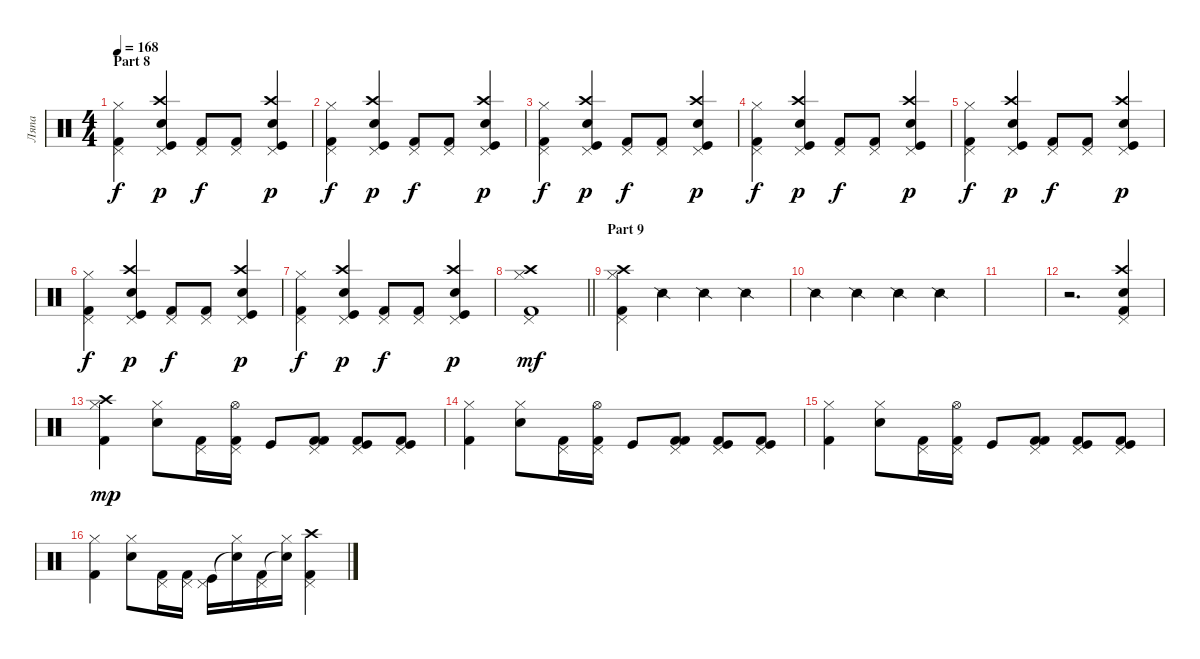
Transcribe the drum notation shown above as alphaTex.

\track ("Ляпа" "Ляпа") {instrument percussion}
\staff {score}
\articulation defaults
\ts (4 4)
\section ("" "Part 8")
\tempo 168
\clef neutral
\ks c
("Hi-Hat (closed)" "Kick (hit) 2" "Pedal Hi-Hat (hit)").4{dy f} ("Crash high (hit)" "Snare (hit) 2" "Kick (hit)" "Pedal Hi-Hat (hit)").4{dy p} ("Kick (hit) 2" "Pedal Hi-Hat (hit)").8{dy f} ("Kick (hit) 2" "Pedal Hi-Hat (hit)").8 ("Crash high (hit)" "Snare (hit) 2" "Kick (hit)" "Pedal Hi-Hat (hit)").4{dy p} |
("Hi-Hat (closed)" "Kick (hit) 2" "Pedal Hi-Hat (hit)").4{dy f} ("Crash high (hit)" "Snare (hit) 2" "Kick (hit)" "Pedal Hi-Hat (hit)").4{dy p} ("Kick (hit) 2" "Pedal Hi-Hat (hit)").8{dy f} ("Kick (hit) 2" "Pedal Hi-Hat (hit)").8 ("Crash high (hit)" "Snare (hit) 2" "Kick (hit)" "Pedal Hi-Hat (hit)").4{dy p} |
("Hi-Hat (closed)" "Kick (hit) 2" "Pedal Hi-Hat (hit)").4{dy f} ("Crash high (hit)" "Snare (hit) 2" "Kick (hit)" "Pedal Hi-Hat (hit)").4{dy p} ("Kick (hit) 2" "Pedal Hi-Hat (hit)").8{dy f} ("Kick (hit) 2" "Pedal Hi-Hat (hit)").8 ("Crash high (hit)" "Snare (hit) 2" "Kick (hit)" "Pedal Hi-Hat (hit)").4{dy p} |
("Hi-Hat (closed)" "Kick (hit) 2" "Pedal Hi-Hat (hit)").4{dy f} ("Crash high (hit)" "Snare (hit) 2" "Kick (hit)" "Pedal Hi-Hat (hit)").4{dy p} ("Kick (hit) 2" "Pedal Hi-Hat (hit)").8{dy f} ("Kick (hit) 2" "Pedal Hi-Hat (hit)").8 ("Crash high (hit)" "Snare (hit) 2" "Kick (hit)" "Pedal Hi-Hat (hit)").4{dy p} |
("Hi-Hat (closed)" "Kick (hit) 2" "Pedal Hi-Hat (hit)").4{dy f} ("Crash high (hit)" "Snare (hit) 2" "Kick (hit)" "Pedal Hi-Hat (hit)").4{dy p} ("Kick (hit) 2" "Pedal Hi-Hat (hit)").8{dy f} ("Kick (hit) 2" "Pedal Hi-Hat (hit)").8 ("Crash high (hit)" "Snare (hit) 2" "Kick (hit)" "Pedal Hi-Hat (hit)").4{dy p} |
("Hi-Hat (closed)" "Kick (hit) 2" "Pedal Hi-Hat (hit)").4{dy f} ("Crash high (hit)" "Snare (hit) 2" "Kick (hit)" "Pedal Hi-Hat (hit)").4{dy p} ("Kick (hit) 2" "Pedal Hi-Hat (hit)").8{dy f} ("Kick (hit) 2" "Pedal Hi-Hat (hit)").8 ("Crash high (hit)" "Snare (hit) 2" "Kick (hit)" "Pedal Hi-Hat (hit)").4{dy p} |
("Hi-Hat (closed)" "Kick (hit) 2" "Pedal Hi-Hat (hit)").4{dy f} ("Crash high (hit)" "Snare (hit) 2" "Kick (hit)" "Pedal Hi-Hat (hit)").4{dy p} ("Kick (hit) 2" "Pedal Hi-Hat (hit)").8{dy f} ("Kick (hit) 2" "Pedal Hi-Hat (hit)").8 ("Crash high (hit)" "Snare (hit) 2" "Kick (hit)" "Pedal Hi-Hat (hit)").4{dy p} |
\barLineRight lightlight
("Pedal Hi-Hat (hit)" "Crash high (hit)" "Hi-Hat (closed)" "Kick (hit) 2").1{dy mf} |
\section ("" "Part 9")
("Pedal Hi-Hat (hit)" "Crash high (hit)" "Hi-Hat (closed)" "Kick (hit) 2").4 "Snare (side stick) 2".4 "Snare (side stick) 2".4 "Snare (side stick) 2".4 |
"Snare (side stick) 2".4 "Snare (side stick) 2".4 "Snare (side stick) 2".4 "Snare (side stick) 2".4 |
|
r.2{d} ("Kick (hit) 2" "Pedal Hi-Hat (hit)" "Crash high (hit)" "Snare (hit) 2").4{bu 120} |
("Crash high (hit)" "Kick (hit) 2" "Hi-Hat (closed)").4{dy mp} ("Electric Snare (hit)" "Hi-Hat (closed)").8 ("Kick (hit) 2" "Pedal Hi-Hat (hit)").16 ("Kick (hit) 2" "Hi-Hat (open)" "Pedal Hi-Hat (hit)").16 "Kick (hit)".8 ("Kick (hit) 2" "Kick (hit) 2" "Pedal Hi-Hat (hit)").8 ("Kick (hit) 2" "Kick (hit)" "Pedal Hi-Hat (hit)").8 ("Kick (hit)" "Kick (hit) 2" "Pedal Hi-Hat (hit)").8 |
("Kick (hit) 2" "Hi-Hat (closed)").4 ("Electric Snare (hit)" "Hi-Hat (closed)").8 ("Kick (hit) 2" "Pedal Hi-Hat (hit)").16 ("Kick (hit) 2" "Hi-Hat (open)" "Pedal Hi-Hat (hit)").16 "Kick (hit)".8 ("Kick (hit) 2" "Kick (hit) 2" "Pedal Hi-Hat (hit)").8 ("Kick (hit) 2" "Kick (hit)" "Pedal Hi-Hat (hit)").8 ("Kick (hit)" "Kick (hit) 2" "Pedal Hi-Hat (hit)").8 |
("Kick (hit) 2" "Hi-Hat (closed)").4 ("Electric Snare (hit)" "Hi-Hat (closed)").8 ("Kick (hit) 2" "Pedal Hi-Hat (hit)").16 ("Kick (hit) 2" "Hi-Hat (open)" "Pedal Hi-Hat (hit)").16 "Kick (hit)".8 ("Kick (hit) 2" "Kick (hit) 2" "Pedal Hi-Hat (hit)").8 ("Kick (hit) 2" "Kick (hit)" "Pedal Hi-Hat (hit)").8 ("Kick (hit)" "Kick (hit) 2" "Pedal Hi-Hat (hit)").8 |
("Kick (hit) 2" "Hi-Hat (closed)").4 ("Electric Snare (hit)" "Hi-Hat (closed)").8 ("Kick (hit) 2" "Pedal Hi-Hat (hit)").16 ("Kick (hit) 2" "Pedal Hi-Hat (hit)").16 ("Kick (hit)" "Pedal Hi-Hat (hit)").16 ("Snare (hit)"{t} "Hi-Hat (closed)").16 ("Kick (hit) 2" "Pedal Hi-Hat (hit)").16 ("Snare (hit)"{t} "Hi-Hat (closed)").16 ("Crash high (hit)" "Kick (hit) 2" "Pedal Hi-Hat (hit)").4
